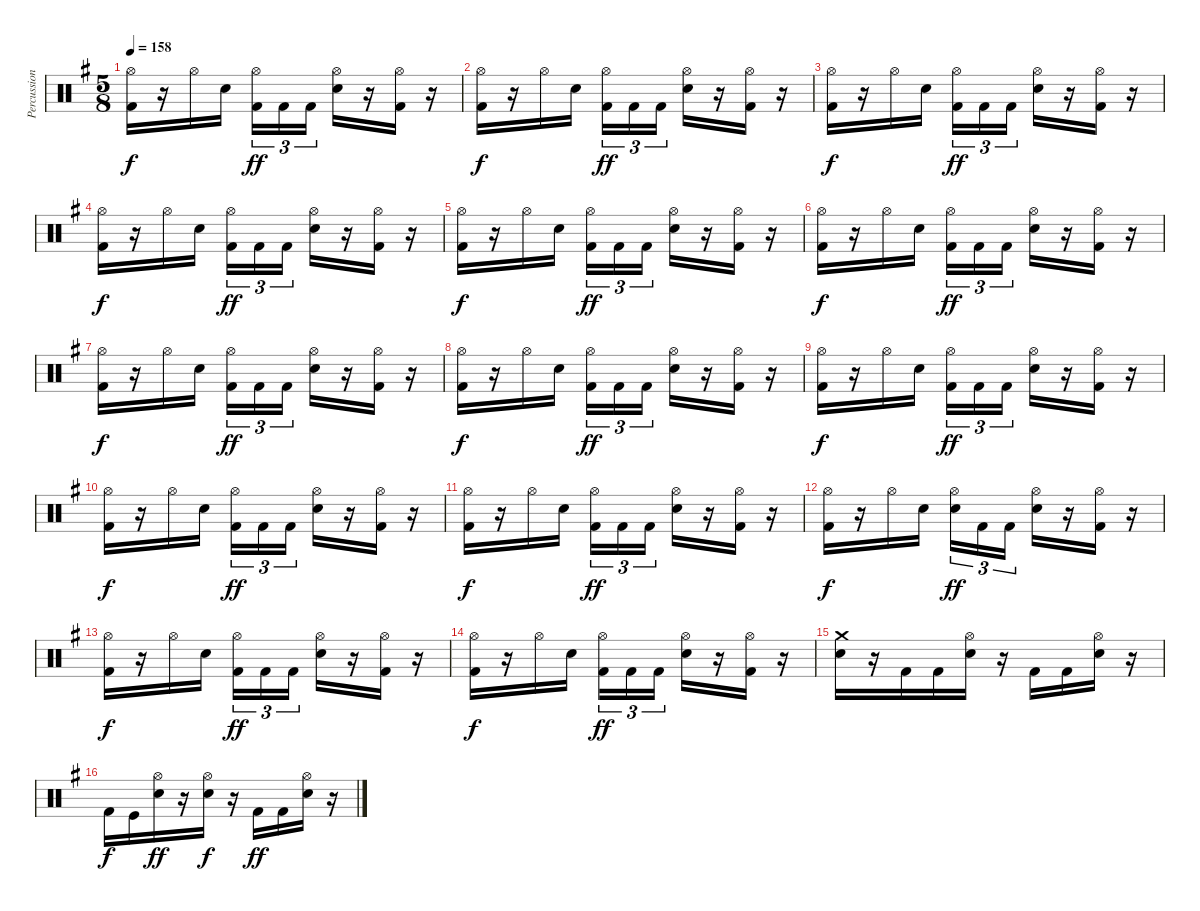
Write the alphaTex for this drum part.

\track ("Percussion" "Percussion") {instrument percussion}
\staff {score}
\articulation defaults
\ts (5 8)
\tempo 158
\clef neutral
\ks g
("Hi-Hat (open)" "Kick (hit) 2").16{dy f} r.16 "Hi-Hat (open)".16 "Electric Snare (hit)".16 ("Hi-Hat (open)" "Kick (hit) 2").16{tu (3 2) dy ff} "Kick (hit) 2".16{tu (3 2)} "Kick (hit) 2".16{tu (3 2)} ("Hi-Hat (open)" "Electric Snare (hit)").16 r.16 ("Hi-Hat (open)" "Kick (hit) 2").16 r.16 |
("Hi-Hat (open)" "Kick (hit) 2").16{dy f} r.16 "Hi-Hat (open)".16 "Electric Snare (hit)".16 ("Hi-Hat (open)" "Kick (hit) 2").16{tu (3 2) dy ff} "Kick (hit) 2".16{tu (3 2)} "Kick (hit) 2".16{tu (3 2)} ("Hi-Hat (open)" "Electric Snare (hit)").16 r.16 ("Hi-Hat (open)" "Kick (hit) 2").16 r.16 |
("Hi-Hat (open)" "Kick (hit) 2").16{dy f} r.16 "Hi-Hat (open)".16 "Electric Snare (hit)".16 ("Hi-Hat (open)" "Kick (hit) 2").16{tu (3 2) dy ff} "Kick (hit) 2".16{tu (3 2)} "Kick (hit) 2".16{tu (3 2)} ("Hi-Hat (open)" "Electric Snare (hit)").16 r.16 ("Hi-Hat (open)" "Kick (hit) 2").16 r.16 |
("Hi-Hat (open)" "Kick (hit) 2").16{dy f} r.16 "Hi-Hat (open)".16 "Electric Snare (hit)".16 ("Hi-Hat (open)" "Kick (hit) 2").16{tu (3 2) dy ff} "Kick (hit) 2".16{tu (3 2)} "Kick (hit) 2".16{tu (3 2)} ("Hi-Hat (open)" "Electric Snare (hit)").16 r.16 ("Hi-Hat (open)" "Kick (hit) 2").16 r.16 |
("Hi-Hat (open)" "Kick (hit) 2").16{dy f} r.16 "Hi-Hat (open)".16 "Electric Snare (hit)".16 ("Hi-Hat (open)" "Kick (hit) 2").16{tu (3 2) dy ff} "Kick (hit) 2".16{tu (3 2)} "Kick (hit) 2".16{tu (3 2)} ("Hi-Hat (open)" "Electric Snare (hit)").16 r.16 ("Hi-Hat (open)" "Kick (hit) 2").16 r.16 |
("Hi-Hat (open)" "Kick (hit) 2").16{dy f} r.16 "Hi-Hat (open)".16 "Electric Snare (hit)".16 ("Hi-Hat (open)" "Kick (hit) 2").16{tu (3 2) dy ff} "Kick (hit) 2".16{tu (3 2)} "Kick (hit) 2".16{tu (3 2)} ("Hi-Hat (open)" "Electric Snare (hit)").16 r.16 ("Hi-Hat (open)" "Kick (hit) 2").16 r.16 |
("Hi-Hat (open)" "Kick (hit) 2").16{dy f} r.16 "Hi-Hat (open)".16 "Electric Snare (hit)".16 ("Hi-Hat (open)" "Kick (hit) 2").16{tu (3 2) dy ff} "Kick (hit) 2".16{tu (3 2)} "Kick (hit) 2".16{tu (3 2)} ("Hi-Hat (open)" "Electric Snare (hit)").16 r.16 ("Hi-Hat (open)" "Kick (hit) 2").16 r.16 |
("Hi-Hat (open)" "Kick (hit) 2").16{dy f} r.16 "Hi-Hat (open)".16 "Electric Snare (hit)".16 ("Hi-Hat (open)" "Kick (hit) 2").16{tu (3 2) dy ff} "Kick (hit) 2".16{tu (3 2)} "Kick (hit) 2".16{tu (3 2)} ("Hi-Hat (open)" "Electric Snare (hit)").16 r.16 ("Hi-Hat (open)" "Kick (hit) 2").16 r.16 |
("Hi-Hat (open)" "Kick (hit) 2").16{dy f} r.16 "Hi-Hat (open)".16 "Electric Snare (hit)".16 ("Hi-Hat (open)" "Kick (hit) 2").16{tu (3 2) dy ff} "Kick (hit) 2".16{tu (3 2)} "Kick (hit) 2".16{tu (3 2)} ("Hi-Hat (open)" "Electric Snare (hit)").16 r.16 ("Hi-Hat (open)" "Kick (hit) 2").16 r.16 |
("Hi-Hat (open)" "Kick (hit) 2").16{dy f} r.16 "Hi-Hat (open)".16 "Electric Snare (hit)".16 ("Hi-Hat (open)" "Kick (hit) 2").16{tu (3 2) dy ff} "Kick (hit) 2".16{tu (3 2)} "Kick (hit) 2".16{tu (3 2)} ("Hi-Hat (open)" "Electric Snare (hit)").16 r.16 ("Hi-Hat (open)" "Kick (hit) 2").16 r.16 |
("Hi-Hat (open)" "Kick (hit) 2").16{dy f} r.16 "Hi-Hat (open)".16 "Electric Snare (hit)".16 ("Hi-Hat (open)" "Kick (hit) 2").16{tu (3 2) dy ff} "Kick (hit) 2".16{tu (3 2)} "Kick (hit) 2".16{tu (3 2)} ("Hi-Hat (open)" "Electric Snare (hit)").16 r.16 ("Hi-Hat (open)" "Kick (hit) 2").16 r.16 |
("Hi-Hat (open)" "Kick (hit) 2").16{dy f} r.16 "Hi-Hat (open)".16 "Electric Snare (hit)".16 ("Hi-Hat (open)" "Electric Snare (hit)").16{tu (3 2) dy ff} "Kick (hit) 2".16{tu (3 2)} "Kick (hit) 2".16{tu (3 2)} ("Hi-Hat (open)" "Electric Snare (hit)").16 r.16 ("Hi-Hat (open)" "Kick (hit) 2").16 r.16 |
("Hi-Hat (open)" "Kick (hit) 2").16{dy f} r.16 "Hi-Hat (open)".16 "Electric Snare (hit)".16 ("Hi-Hat (open)" "Kick (hit) 2").16{tu (3 2) dy ff} "Kick (hit) 2".16{tu (3 2)} "Kick (hit) 2".16{tu (3 2)} ("Hi-Hat (open)" "Electric Snare (hit)").16 r.16 ("Hi-Hat (open)" "Kick (hit) 2").16 r.16 |
("Hi-Hat (open)" "Kick (hit) 2").16{dy f} r.16 "Hi-Hat (open)".16 "Electric Snare (hit)".16 ("Hi-Hat (open)" "Kick (hit) 2").16{tu (3 2) dy ff} "Kick (hit) 2".16{tu (3 2)} "Kick (hit) 2".16{tu (3 2)} ("Hi-Hat (open)" "Electric Snare (hit)").16 r.16 ("Hi-Hat (open)" "Kick (hit) 2").16 r.16 |
("Crash medium (hit)" "Electric Snare (hit)").16 r.16 "Kick (hit) 2".16 "Kick (hit) 2".16 ("Hi-Hat (open)" "Electric Snare (hit)").16 r.16 "Kick (hit) 2".16 "Kick (hit) 2".16 ("Hi-Hat (open)" "Electric Snare (hit)").16 r.16 |
"Kick (hit) 2".16{dy f} "Kick (hit)".16 ("Hi-Hat (open)" "Electric Snare (hit)").16{dy ff} r.16 ("Hi-Hat (open)" "Electric Snare (hit)").16{dy f} r.16 "Kick (hit) 2".16{dy ff} "Kick (hit) 2".16 ("Hi-Hat (open)" "Electric Snare (hit)").16 r.16
